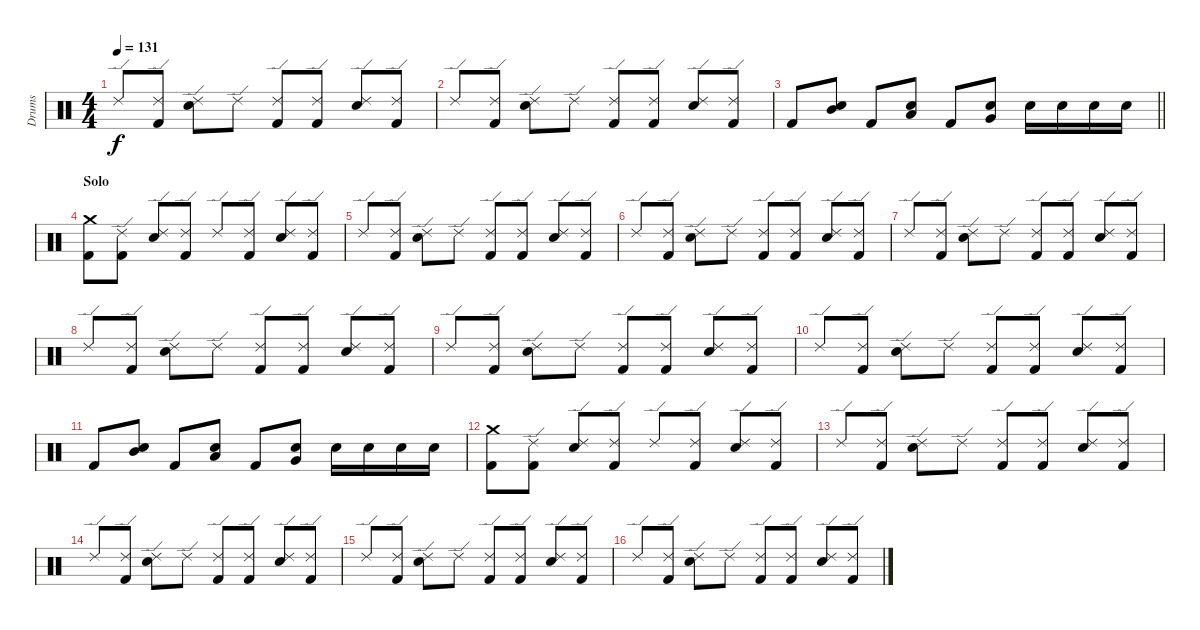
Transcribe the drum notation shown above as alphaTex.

\track ("Drums" "Drums") {instrument percussion}
\staff {score}
\articulation defaults
\ts (4 4)
\tempo 131
\clef neutral
\ks c "Ride (edge) 2".8{dy f}
("Ride (edge) 2" "Kick (hit) 2").8 ("Ride (edge) 2" "Snare (hit) 2").8 "Ride (edge) 2".8 ("Ride (edge) 2" "Kick (hit) 2").8 ("Ride (edge) 2" "Kick (hit) 2").8 ("Ride (edge) 2" "Snare (hit) 2").8 ("Ride (edge) 2" "Kick (hit) 2").8 |
"Ride (edge) 2".8 ("Ride (edge) 2" "Kick (hit) 2").8 ("Ride (edge) 2" "Snare (hit) 2").8 "Ride (edge) 2".8 ("Ride (edge) 2" "Kick (hit) 2").8 ("Ride (edge) 2" "Kick (hit) 2").8 ("Ride (edge) 2" "Snare (hit) 2").8 ("Ride (edge) 2" "Kick (hit) 2").8 |
\barLineRight lightlight "Kick (hit) 2".8
("Mid Tom (hit)" "Snare (hit) 2").8 "Kick (hit) 2".8 ("Low Tom (hit)" "Snare (hit) 2").8 "Kick (hit) 2".8 ("Very Low Tom (hit)" "Snare (hit) 2").8 "Snare (hit) 2".16 "Snare (hit) 2".16 "Snare (hit) 2".16 "Snare (hit) 2".16 |
\section ("" "Solo")
("Crash medium (hit)" "Kick (hit) 2").8 ("Ride (edge) 2" "Kick (hit) 2").8 ("Ride (edge) 2" "Snare (hit) 2").8 ("Ride (edge) 2" "Kick (hit) 2").8 "Ride (edge) 2".8 ("Ride (edge) 2" "Kick (hit) 2").8 ("Ride (edge) 2" "Snare (hit) 2").8 ("Ride (edge) 2" "Kick (hit) 2").8 |
"Ride (edge) 2".8 ("Ride (edge) 2" "Kick (hit) 2").8 ("Ride (edge) 2" "Snare (hit) 2").8 "Ride (edge) 2".8 ("Ride (edge) 2" "Kick (hit) 2").8 ("Ride (edge) 2" "Kick (hit) 2").8 ("Ride (edge) 2" "Snare (hit) 2").8 ("Ride (edge) 2" "Kick (hit) 2").8 |
"Ride (edge) 2".8 ("Ride (edge) 2" "Kick (hit) 2").8 ("Ride (edge) 2" "Snare (hit) 2").8 "Ride (edge) 2".8 ("Ride (edge) 2" "Kick (hit) 2").8 ("Ride (edge) 2" "Kick (hit) 2").8 ("Ride (edge) 2" "Snare (hit) 2").8 ("Ride (edge) 2" "Kick (hit) 2").8 |
"Ride (edge) 2".8 ("Ride (edge) 2" "Kick (hit) 2").8 ("Ride (edge) 2" "Snare (hit) 2").8 "Ride (edge) 2".8 ("Ride (edge) 2" "Kick (hit) 2").8 ("Ride (edge) 2" "Kick (hit) 2").8 ("Ride (edge) 2" "Snare (hit) 2").8 ("Ride (edge) 2" "Kick (hit) 2").8 |
"Ride (edge) 2".8 ("Ride (edge) 2" "Kick (hit) 2").8 ("Ride (edge) 2" "Snare (hit) 2").8 "Ride (edge) 2".8 ("Ride (edge) 2" "Kick (hit) 2").8 ("Ride (edge) 2" "Kick (hit) 2").8 ("Ride (edge) 2" "Snare (hit) 2").8 ("Ride (edge) 2" "Kick (hit) 2").8 |
"Ride (edge) 2".8 ("Ride (edge) 2" "Kick (hit) 2").8 ("Ride (edge) 2" "Snare (hit) 2").8 "Ride (edge) 2".8 ("Ride (edge) 2" "Kick (hit) 2").8 ("Ride (edge) 2" "Kick (hit) 2").8 ("Ride (edge) 2" "Snare (hit) 2").8 ("Ride (edge) 2" "Kick (hit) 2").8 |
"Ride (edge) 2".8 ("Ride (edge) 2" "Kick (hit) 2").8 ("Ride (edge) 2" "Snare (hit) 2").8 "Ride (edge) 2".8 ("Ride (edge) 2" "Kick (hit) 2").8 ("Ride (edge) 2" "Kick (hit) 2").8 ("Ride (edge) 2" "Snare (hit) 2").8 ("Ride (edge) 2" "Kick (hit) 2").8 |
"Kick (hit) 2".8 ("Mid Tom (hit)" "Snare (hit) 2").8 "Kick (hit) 2".8 ("Low Tom (hit)" "Snare (hit) 2").8 "Kick (hit) 2".8 ("Very Low Tom (hit)" "Snare (hit) 2").8 "Snare (hit) 2".16 "Snare (hit) 2".16 "Snare (hit) 2".16 "Snare (hit) 2".16 |
("Crash medium (hit)" "Kick (hit) 2").8 ("Ride (edge) 2" "Kick (hit) 2").8 ("Ride (edge) 2" "Snare (hit) 2").8 ("Ride (edge) 2" "Kick (hit) 2").8 "Ride (edge) 2".8 ("Ride (edge) 2" "Kick (hit) 2").8 ("Ride (edge) 2" "Snare (hit) 2").8 ("Ride (edge) 2" "Kick (hit) 2").8 |
"Ride (edge) 2".8 ("Ride (edge) 2" "Kick (hit) 2").8 ("Ride (edge) 2" "Snare (hit) 2").8 "Ride (edge) 2".8 ("Ride (edge) 2" "Kick (hit) 2").8 ("Ride (edge) 2" "Kick (hit) 2").8 ("Ride (edge) 2" "Snare (hit) 2").8 ("Ride (edge) 2" "Kick (hit) 2").8 |
"Ride (edge) 2".8 ("Ride (edge) 2" "Kick (hit) 2").8 ("Ride (edge) 2" "Snare (hit) 2").8 "Ride (edge) 2".8 ("Ride (edge) 2" "Kick (hit) 2").8 ("Ride (edge) 2" "Kick (hit) 2").8 ("Ride (edge) 2" "Snare (hit) 2").8 ("Ride (edge) 2" "Kick (hit) 2").8 |
"Ride (edge) 2".8 ("Ride (edge) 2" "Kick (hit) 2").8 ("Ride (edge) 2" "Snare (hit) 2").8 "Ride (edge) 2".8 ("Ride (edge) 2" "Kick (hit) 2").8 ("Ride (edge) 2" "Kick (hit) 2").8 ("Ride (edge) 2" "Snare (hit) 2").8 ("Ride (edge) 2" "Kick (hit) 2").8 |
"Ride (edge) 2".8 ("Ride (edge) 2" "Kick (hit) 2").8 ("Ride (edge) 2" "Snare (hit) 2").8 "Ride (edge) 2".8 ("Ride (edge) 2" "Kick (hit) 2").8 ("Ride (edge) 2" "Kick (hit) 2").8 ("Ride (edge) 2" "Snare (hit) 2").8 ("Ride (edge) 2" "Kick (hit) 2").8
